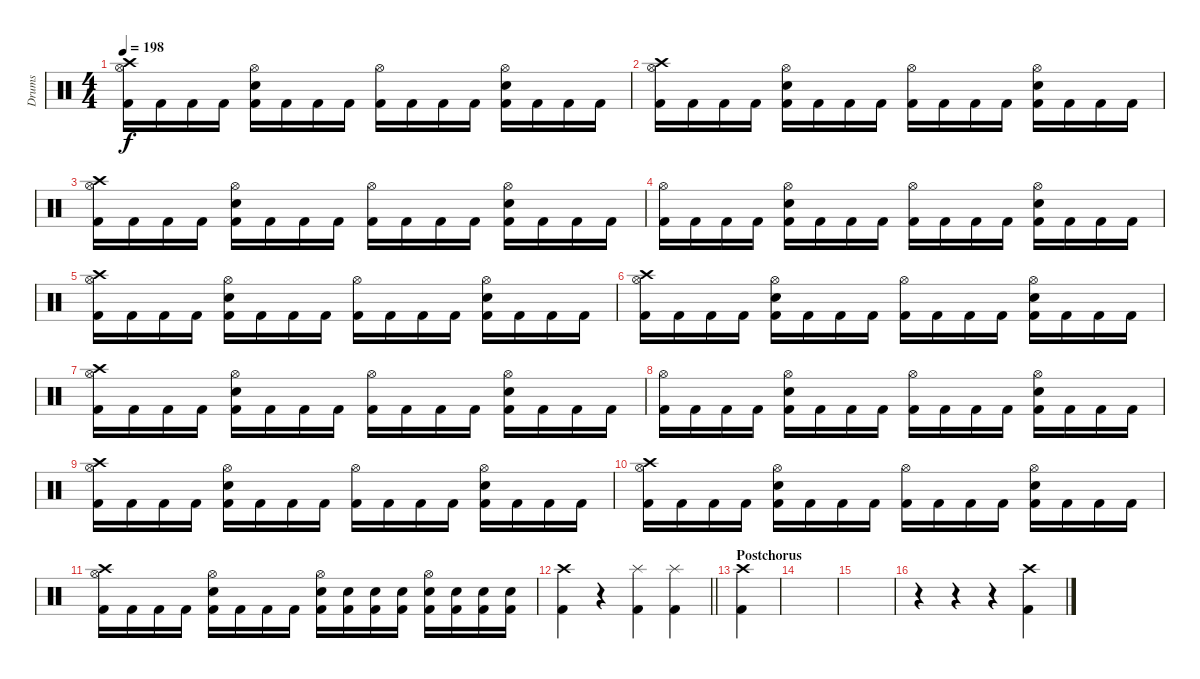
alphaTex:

\track ("Drums" "Drums") {instrument percussion}
\staff {score}
\articulation defaults
\ts (4 4)
\tempo 198
\clef neutral
\ks c
("Crash high (hit)" "Hi-Hat (open)" "Kick (hit) 2").16{dy f} "Kick (hit) 2".16 "Kick (hit) 2".16 "Kick (hit) 2".16 ("Hi-Hat (open)" "Snare (hit) 2" "Kick (hit) 2").16 "Kick (hit) 2".16 "Kick (hit) 2".16 "Kick (hit) 2".16 ("Hi-Hat (open)" "Kick (hit) 2").16 "Kick (hit) 2".16 "Kick (hit) 2".16 "Kick (hit) 2".16 ("Hi-Hat (open)" "Snare (hit) 2" "Kick (hit) 2").16 "Kick (hit) 2".16 "Kick (hit) 2".16 "Kick (hit) 2".16 |
("Crash high (hit)" "Hi-Hat (open)" "Kick (hit) 2").16 "Kick (hit) 2".16 "Kick (hit) 2".16 "Kick (hit) 2".16 ("Hi-Hat (open)" "Snare (hit) 2" "Kick (hit) 2").16 "Kick (hit) 2".16 "Kick (hit) 2".16 "Kick (hit) 2".16 ("Hi-Hat (open)" "Kick (hit) 2").16 "Kick (hit) 2".16 "Kick (hit) 2".16 "Kick (hit) 2".16 ("Hi-Hat (open)" "Snare (hit) 2" "Kick (hit) 2").16 "Kick (hit) 2".16 "Kick (hit) 2".16 "Kick (hit) 2".16 |
("Crash high (hit)" "Hi-Hat (open)" "Kick (hit) 2").16 "Kick (hit) 2".16 "Kick (hit) 2".16 "Kick (hit) 2".16 ("Hi-Hat (open)" "Snare (hit) 2" "Kick (hit) 2").16 "Kick (hit) 2".16 "Kick (hit) 2".16 "Kick (hit) 2".16 ("Hi-Hat (open)" "Kick (hit) 2").16 "Kick (hit) 2".16 "Kick (hit) 2".16 "Kick (hit) 2".16 ("Hi-Hat (open)" "Snare (hit) 2" "Kick (hit) 2").16 "Kick (hit) 2".16 "Kick (hit) 2".16 "Kick (hit) 2".16 |
("Hi-Hat (open)" "Kick (hit) 2").16 "Kick (hit) 2".16 "Kick (hit) 2".16 "Kick (hit) 2".16 ("Hi-Hat (open)" "Snare (hit) 2" "Kick (hit) 2").16 "Kick (hit) 2".16 "Kick (hit) 2".16 "Kick (hit) 2".16 ("Hi-Hat (open)" "Kick (hit) 2").16 "Kick (hit) 2".16 "Kick (hit) 2".16 "Kick (hit) 2".16 ("Hi-Hat (open)" "Snare (hit) 2" "Kick (hit) 2").16 "Kick (hit) 2".16 "Kick (hit) 2".16 "Kick (hit) 2".16 |
("Crash high (hit)" "Hi-Hat (open)" "Kick (hit) 2").16 "Kick (hit) 2".16 "Kick (hit) 2".16 "Kick (hit) 2".16 ("Hi-Hat (open)" "Snare (hit) 2" "Kick (hit) 2").16 "Kick (hit) 2".16 "Kick (hit) 2".16 "Kick (hit) 2".16 ("Hi-Hat (open)" "Kick (hit) 2").16 "Kick (hit) 2".16 "Kick (hit) 2".16 "Kick (hit) 2".16 ("Hi-Hat (open)" "Snare (hit) 2" "Kick (hit) 2").16 "Kick (hit) 2".16 "Kick (hit) 2".16 "Kick (hit) 2".16 |
("Crash high (hit)" "Hi-Hat (open)" "Kick (hit) 2").16 "Kick (hit) 2".16 "Kick (hit) 2".16 "Kick (hit) 2".16 ("Hi-Hat (open)" "Snare (hit) 2" "Kick (hit) 2").16 "Kick (hit) 2".16 "Kick (hit) 2".16 "Kick (hit) 2".16 ("Hi-Hat (open)" "Kick (hit) 2").16 "Kick (hit) 2".16 "Kick (hit) 2".16 "Kick (hit) 2".16 ("Hi-Hat (open)" "Snare (hit) 2" "Kick (hit) 2").16 "Kick (hit) 2".16 "Kick (hit) 2".16 "Kick (hit) 2".16 |
("Crash high (hit)" "Hi-Hat (open)" "Kick (hit) 2").16 "Kick (hit) 2".16 "Kick (hit) 2".16 "Kick (hit) 2".16 ("Hi-Hat (open)" "Snare (hit) 2" "Kick (hit) 2").16 "Kick (hit) 2".16 "Kick (hit) 2".16 "Kick (hit) 2".16 ("Hi-Hat (open)" "Kick (hit) 2").16 "Kick (hit) 2".16 "Kick (hit) 2".16 "Kick (hit) 2".16 ("Hi-Hat (open)" "Snare (hit) 2" "Kick (hit) 2").16 "Kick (hit) 2".16 "Kick (hit) 2".16 "Kick (hit) 2".16 |
("Hi-Hat (open)" "Kick (hit) 2").16 "Kick (hit) 2".16 "Kick (hit) 2".16 "Kick (hit) 2".16 ("Hi-Hat (open)" "Snare (hit) 2" "Kick (hit) 2").16 "Kick (hit) 2".16 "Kick (hit) 2".16 "Kick (hit) 2".16 ("Hi-Hat (open)" "Kick (hit) 2").16 "Kick (hit) 2".16 "Kick (hit) 2".16 "Kick (hit) 2".16 ("Hi-Hat (open)" "Snare (hit) 2" "Kick (hit) 2").16 "Kick (hit) 2".16 "Kick (hit) 2".16 "Kick (hit) 2".16 |
("Crash high (hit)" "Hi-Hat (open)" "Kick (hit) 2").16 "Kick (hit) 2".16 "Kick (hit) 2".16 "Kick (hit) 2".16 ("Hi-Hat (open)" "Snare (hit) 2" "Kick (hit) 2").16 "Kick (hit) 2".16 "Kick (hit) 2".16 "Kick (hit) 2".16 ("Hi-Hat (open)" "Kick (hit) 2").16 "Kick (hit) 2".16 "Kick (hit) 2".16 "Kick (hit) 2".16 ("Hi-Hat (open)" "Snare (hit) 2" "Kick (hit) 2").16 "Kick (hit) 2".16 "Kick (hit) 2".16 "Kick (hit) 2".16 |
("Crash high (hit)" "Hi-Hat (open)" "Kick (hit) 2").16 "Kick (hit) 2".16 "Kick (hit) 2".16 "Kick (hit) 2".16 ("Hi-Hat (open)" "Snare (hit) 2" "Kick (hit) 2").16 "Kick (hit) 2".16 "Kick (hit) 2".16 "Kick (hit) 2".16 ("Hi-Hat (open)" "Kick (hit) 2").16 "Kick (hit) 2".16 "Kick (hit) 2".16 "Kick (hit) 2".16 ("Hi-Hat (open)" "Snare (hit) 2" "Kick (hit) 2").16 "Kick (hit) 2".16 "Kick (hit) 2".16 "Kick (hit) 2".16 |
("Crash high (hit)" "Hi-Hat (open)" "Kick (hit) 2").16 "Kick (hit) 2".16 "Kick (hit) 2".16 "Kick (hit) 2".16 ("Hi-Hat (open)" "Snare (hit) 2" "Kick (hit) 2").16 "Kick (hit) 2".16 "Kick (hit) 2".16 "Kick (hit) 2".16 ("Hi-Hat (open)" "Snare (hit) 2" "Kick (hit) 2").16 ("Snare (hit) 2" "Kick (hit) 2").16 ("Snare (hit) 2" "Kick (hit) 2").16 ("Snare (hit) 2" "Kick (hit) 2").16 ("Hi-Hat (open)" "Snare (hit) 2" "Kick (hit) 2").16 ("Snare (hit) 2" "Kick (hit) 2").16 ("Snare (hit) 2" "Kick (hit) 2").16 ("Snare (hit) 2" "Kick (hit) 2").16 |
\barLineRight lightlight
("Crash high (hit)" "Kick (hit) 2").4 r.4 ("Splash (hit)" "Kick (hit) 2").4 ("Splash (hit)" "Kick (hit) 2").4 |
\section ("" "Postchorus")
("Crash high (hit)" "Kick (hit) 2").4 |
|
|
r.4 r.4 r.4 ("Crash high (hit)" "Kick (hit) 2").4
